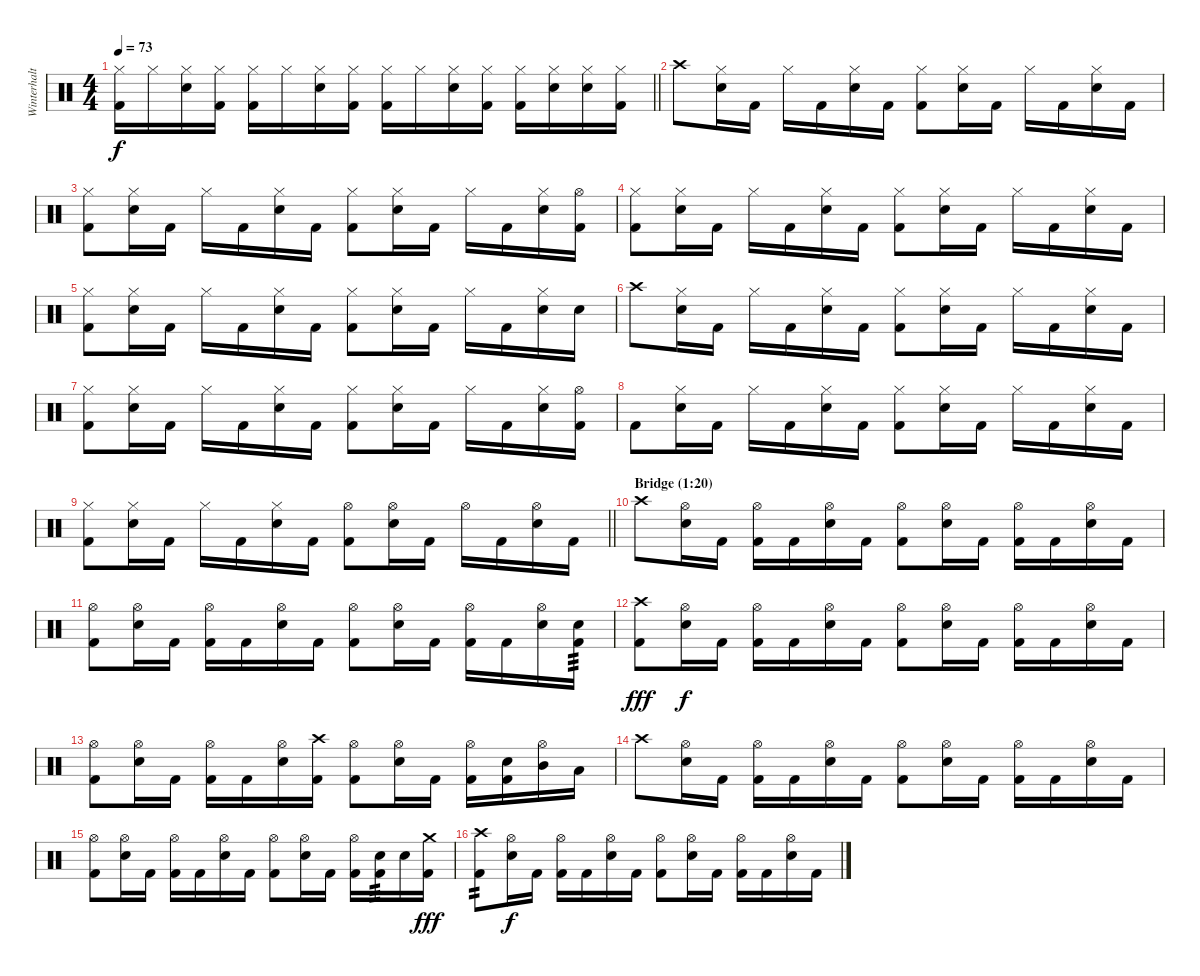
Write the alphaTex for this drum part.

\track ("Winterhalten" "Winterhalt") {instrument percussion}
\staff {score}
\articulation defaults
\ts (4 4)
\tempo 73
\clef neutral
\barLineRight lightlight
\ks c
("Kick (hit) 2" "Hi-Hat (closed)").16{dy f} "Hi-Hat (closed)".16 ("Hi-Hat (closed)" "Snare (hit) 2").16 ("Kick (hit) 2" "Hi-Hat (closed)").16 ("Kick (hit) 2" "Hi-Hat (closed)").16 "Hi-Hat (closed)".16 ("Hi-Hat (closed)" "Snare (hit) 2").16 ("Kick (hit) 2" "Hi-Hat (closed)").16 ("Kick (hit) 2" "Hi-Hat (closed)").16 "Hi-Hat (closed)".16 ("Hi-Hat (closed)" "Snare (hit) 2").16 ("Kick (hit) 2" "Hi-Hat (closed)").16 ("Kick (hit) 2" "Hi-Hat (closed)").16 ("Hi-Hat (closed)" "Snare (hit) 2").16 ("Hi-Hat (closed)" "Snare (hit) 2").16 ("Kick (hit) 2" "Hi-Hat (closed)").16 |
\section ("" "")
"Crash high (hit)".8 ("Hi-Hat (closed)" "Snare (hit) 2").16 "Kick (hit) 2".16 "Hi-Hat (closed)".16 "Kick (hit) 2".16 ("Hi-Hat (closed)" "Snare (hit) 2").16 "Kick (hit) 2".16 ("Kick (hit) 2" "Hi-Hat (closed)").8 ("Hi-Hat (closed)" "Snare (hit) 2").16 "Kick (hit) 2".16 "Hi-Hat (closed)".16 "Kick (hit) 2".16 ("Hi-Hat (closed)" "Snare (hit) 2").16 "Kick (hit) 2".16 |
("Kick (hit) 2" "Hi-Hat (closed)").8 ("Hi-Hat (closed)" "Snare (hit) 2").16 "Kick (hit) 2".16 "Hi-Hat (closed)".16 "Kick (hit) 2".16 ("Hi-Hat (closed)" "Snare (hit) 2").16 "Kick (hit) 2".16 ("Kick (hit) 2" "Hi-Hat (closed)").8 ("Hi-Hat (closed)" "Snare (hit) 2").16 "Kick (hit) 2".16 "Hi-Hat (closed)".16 "Kick (hit) 2".16 ("Hi-Hat (closed)" "Snare (hit) 2").16 ("Kick (hit) 2" "Hi-Hat (open)").16 |
("Kick (hit) 2" "Hi-Hat (closed)").8 ("Hi-Hat (closed)" "Snare (hit) 2").16 "Kick (hit) 2".16 "Hi-Hat (closed)".16 "Kick (hit) 2".16 ("Hi-Hat (closed)" "Snare (hit) 2").16 "Kick (hit) 2".16 ("Kick (hit) 2" "Hi-Hat (closed)").8 ("Hi-Hat (closed)" "Snare (hit) 2").16 "Kick (hit) 2".16 "Hi-Hat (closed)".16 "Kick (hit) 2".16 ("Hi-Hat (closed)" "Snare (hit) 2").16 "Kick (hit) 2".16 |
("Kick (hit) 2" "Hi-Hat (closed)").8 ("Hi-Hat (closed)" "Snare (hit) 2").16 "Kick (hit) 2".16 "Hi-Hat (closed)".16 "Kick (hit) 2".16 ("Hi-Hat (closed)" "Snare (hit) 2").16 "Kick (hit) 2".16 ("Kick (hit) 2" "Hi-Hat (closed)").8 ("Hi-Hat (closed)" "Snare (hit) 2").16 "Kick (hit) 2".16 "Hi-Hat (closed)".16 "Kick (hit) 2".16 ("Hi-Hat (closed)" "Snare (hit) 2").16 "Snare (hit) 2".16 |
"Crash high (hit)".8 ("Hi-Hat (closed)" "Snare (hit) 2").16 "Kick (hit) 2".16 "Hi-Hat (closed)".16 "Kick (hit) 2".16 ("Hi-Hat (closed)" "Snare (hit) 2").16 "Kick (hit) 2".16 ("Kick (hit) 2" "Hi-Hat (closed)").8 ("Hi-Hat (closed)" "Snare (hit) 2").16 "Kick (hit) 2".16 "Hi-Hat (closed)".16 "Kick (hit) 2".16 ("Hi-Hat (closed)" "Snare (hit) 2").16 "Kick (hit) 2".16 |
("Kick (hit) 2" "Hi-Hat (closed)").8 ("Hi-Hat (closed)" "Snare (hit) 2").16 "Kick (hit) 2".16 "Hi-Hat (closed)".16 "Kick (hit) 2".16 ("Hi-Hat (closed)" "Snare (hit) 2").16 "Kick (hit) 2".16 ("Kick (hit) 2" "Hi-Hat (closed)").8 ("Hi-Hat (closed)" "Snare (hit) 2").16 "Kick (hit) 2".16 "Hi-Hat (closed)".16 "Kick (hit) 2".16 ("Hi-Hat (closed)" "Snare (hit) 2").16 ("Kick (hit) 2" "Hi-Hat (open)").16 |
"Kick (hit) 2".8 ("Hi-Hat (closed)" "Snare (hit) 2").16 "Kick (hit) 2".16 "Hi-Hat (closed)".16 "Kick (hit) 2".16 ("Hi-Hat (closed)" "Snare (hit) 2").16 "Kick (hit) 2".16 ("Kick (hit) 2" "Hi-Hat (closed)").8 ("Hi-Hat (closed)" "Snare (hit) 2").16 "Kick (hit) 2".16 "Hi-Hat (closed)".16 "Kick (hit) 2".16 ("Hi-Hat (closed)" "Snare (hit) 2").16 "Kick (hit) 2".16 |
\barLineRight lightlight
("Kick (hit) 2" "Hi-Hat (closed)").8 ("Hi-Hat (closed)" "Snare (hit) 2").16 "Kick (hit) 2".16 "Hi-Hat (closed)".16 "Kick (hit) 2".16 ("Hi-Hat (closed)" "Snare (hit) 2").16 "Kick (hit) 2".16 ("Kick (hit) 2" "Hi-Hat (open)").8 ("Hi-Hat (open)" "Snare (hit) 2").16 "Kick (hit) 2".16 "Hi-Hat (open)".16 "Kick (hit) 2".16 ("Hi-Hat (open)" "Snare (hit) 2").16 "Kick (hit) 2".16 |
\section ("" "Bridge (1:20)")
"Crash high (hit)".8 ("Hi-Hat (open)" "Snare (hit) 2").16 "Kick (hit) 2".16 ("Kick (hit) 2" "Hi-Hat (open)").16 "Kick (hit) 2".16 ("Hi-Hat (open)" "Snare (hit) 2").16 "Kick (hit) 2".16 ("Kick (hit) 2" "Hi-Hat (open)").8 ("Hi-Hat (open)" "Snare (hit) 2").16 "Kick (hit) 2".16 ("Kick (hit) 2" "Hi-Hat (open)").16 "Kick (hit) 2".16 ("Hi-Hat (open)" "Snare (hit) 2").16 "Kick (hit) 2".16 |
("Kick (hit) 2" "Hi-Hat (open)").8 ("Hi-Hat (open)" "Snare (hit) 2").16 "Kick (hit) 2".16 ("Kick (hit) 2" "Hi-Hat (open)").16 "Kick (hit) 2".16 ("Hi-Hat (open)" "Snare (hit) 2").16 "Kick (hit) 2".16 ("Kick (hit) 2" "Hi-Hat (open)").8 ("Hi-Hat (open)" "Snare (hit) 2").16 "Kick (hit) 2".16 ("Kick (hit) 2" "Hi-Hat (open)").16 "Kick (hit) 2".16 ("Hi-Hat (open)" "Snare (hit) 2").16 ("Kick (hit) 2" "Snare (hit) 2").16{tp 3} |
("Kick (hit) 2" "Crash high (hit)").8{dy fff} ("Hi-Hat (open)" "Snare (hit) 2").16{dy f} "Kick (hit) 2".16 ("Kick (hit) 2" "Hi-Hat (open)").16 "Kick (hit) 2".16 ("Hi-Hat (open)" "Snare (hit) 2").16 "Kick (hit) 2".16 ("Kick (hit) 2" "Hi-Hat (open)").8 ("Hi-Hat (open)" "Snare (hit) 2").16 "Kick (hit) 2".16 ("Kick (hit) 2" "Hi-Hat (open)").16 "Kick (hit) 2".16 ("Hi-Hat (open)" "Snare (hit) 2").16 "Kick (hit) 2".16 |
("Kick (hit) 2" "Hi-Hat (open)").8 ("Hi-Hat (open)" "Snare (hit) 2").16 "Kick (hit) 2".16 ("Kick (hit) 2" "Hi-Hat (open)").16 "Kick (hit) 2".16 ("Hi-Hat (open)" "Snare (hit) 2").16 ("Kick (hit) 2" "Crash high (hit)").16 ("Kick (hit) 2" "Hi-Hat (open)").8 ("Hi-Hat (open)" "Snare (hit) 2").16 "Kick (hit) 2".16 ("Kick (hit) 2" "Hi-Hat (open)").16 ("Kick (hit) 2" "Snare (hit) 2").16 ("Hi-Hat (open)" "Mid Tom (hit)").16 "Low Tom (hit)".16 |
"Crash high (hit)".8 ("Hi-Hat (open)" "Snare (hit) 2").16 "Kick (hit) 2".16 ("Kick (hit) 2" "Hi-Hat (open)").16 "Kick (hit) 2".16 ("Hi-Hat (open)" "Snare (hit) 2").16 "Kick (hit) 2".16 ("Kick (hit) 2" "Hi-Hat (open)").8 ("Hi-Hat (open)" "Snare (hit) 2").16 "Kick (hit) 2".16 ("Kick (hit) 2" "Hi-Hat (open)").16 "Kick (hit) 2".16 ("Hi-Hat (open)" "Snare (hit) 2").16 "Kick (hit) 2".16 |
("Kick (hit) 2" "Hi-Hat (open)").8 ("Hi-Hat (open)" "Snare (hit) 2").16 "Kick (hit) 2".16 ("Kick (hit) 2" "Hi-Hat (open)").16 "Kick (hit) 2".16 ("Hi-Hat (open)" "Snare (hit) 2").16 "Kick (hit) 2".16 ("Kick (hit) 2" "Hi-Hat (open)").8 ("Hi-Hat (open)" "Snare (hit) 2").16 "Kick (hit) 2".16 ("Kick (hit) 2" "Hi-Hat (open)").16 ("Kick (hit) 2" "Snare (hit) 2").16{tp 3} "Snare (hit) 2".16 ("Kick (hit) 2" "Crash medium (hit)").16{dy fff} |
("Kick (hit) 2" "Crash high (hit)").8{tp 2} ("Hi-Hat (open)" "Snare (hit) 2").16{dy f} "Kick (hit) 2".16 ("Kick (hit) 2" "Hi-Hat (open)").16 "Kick (hit) 2".16 ("Hi-Hat (open)" "Snare (hit) 2").16 "Kick (hit) 2".16 ("Kick (hit) 2" "Hi-Hat (open)").8 ("Hi-Hat (open)" "Snare (hit) 2").16 "Kick (hit) 2".16 ("Kick (hit) 2" "Hi-Hat (open)").16 "Kick (hit) 2".16 ("Hi-Hat (open)" "Snare (hit) 2").16 "Kick (hit) 2".16
